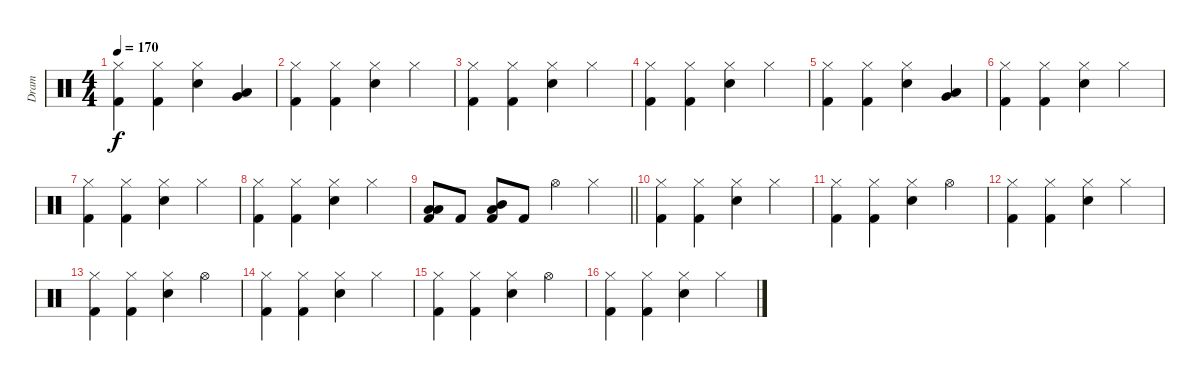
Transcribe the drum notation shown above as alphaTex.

\track ("Dram" "Dram") {instrument percussion}
\staff {score}
\articulation defaults
\ts (4 4)
\tempo 170
\clef neutral
\ks c
("Hi-Hat (closed)" "Kick (hit) 2").4{dy f} ("Hi-Hat (closed)" "Kick (hit) 2").4 ("Hi-Hat (closed)" "Electric Snare (hit)").4 ("Low Tom (hit)" "Very Low Tom (hit)").4 |
("Hi-Hat (closed)" "Kick (hit) 2").4 ("Hi-Hat (closed)" "Kick (hit) 2").4 ("Hi-Hat (closed)" "Electric Snare (hit)").4 "Hi-Hat (closed)".4 |
("Hi-Hat (closed)" "Kick (hit) 2").4 ("Hi-Hat (closed)" "Kick (hit) 2").4 ("Hi-Hat (closed)" "Electric Snare (hit)").4 "Hi-Hat (closed)".4 |
("Hi-Hat (closed)" "Kick (hit) 2").4 ("Hi-Hat (closed)" "Kick (hit) 2").4 ("Hi-Hat (closed)" "Electric Snare (hit)").4 "Hi-Hat (closed)".4 |
("Hi-Hat (closed)" "Kick (hit) 2").4 ("Hi-Hat (closed)" "Kick (hit) 2").4 ("Hi-Hat (closed)" "Electric Snare (hit)").4 ("Low Tom (hit)" "Very Low Tom (hit)").4 |
("Hi-Hat (closed)" "Kick (hit) 2").4 ("Hi-Hat (closed)" "Kick (hit) 2").4 ("Hi-Hat (closed)" "Electric Snare (hit)").4 "Hi-Hat (closed)".4 |
("Hi-Hat (closed)" "Kick (hit) 2").4 ("Hi-Hat (closed)" "Kick (hit) 2").4 ("Hi-Hat (closed)" "Electric Snare (hit)").4 "Hi-Hat (closed)".4 |
("Hi-Hat (closed)" "Kick (hit) 2").4 ("Hi-Hat (closed)" "Kick (hit) 2").4 ("Hi-Hat (closed)" "Electric Snare (hit)").4 "Hi-Hat (closed)".4 |
\barLineRight lightlight
("Low Floor Tom (hit)" "Low Tom (hit)" "Kick (hit) 2").8 "Kick (hit) 2".8 ("Low Tom (hit)" "Mid Tom (hit)" "Kick (hit) 2").8 "Kick (hit) 2".8 "Hi-Hat (open)".4 "Hi-Hat (closed)".4 |
("Hi-Hat (closed)" "Kick (hit) 2").4 ("Hi-Hat (closed)" "Kick (hit) 2").4 ("Hi-Hat (closed)" "Electric Snare (hit)").4 "Hi-Hat (closed)".4 |
("Hi-Hat (closed)" "Kick (hit) 2").4 ("Hi-Hat (closed)" "Kick (hit) 2").4 ("Hi-Hat (closed)" "Electric Snare (hit)").4 "Hi-Hat (open)".4 |
("Hi-Hat (closed)" "Kick (hit) 2").4 ("Hi-Hat (closed)" "Kick (hit) 2").4 ("Hi-Hat (closed)" "Electric Snare (hit)").4 "Hi-Hat (closed)".4 |
("Hi-Hat (closed)" "Kick (hit) 2").4 ("Hi-Hat (closed)" "Kick (hit) 2").4 ("Hi-Hat (closed)" "Electric Snare (hit)").4 "Hi-Hat (open)".4 |
("Hi-Hat (closed)" "Kick (hit) 2").4 ("Hi-Hat (closed)" "Kick (hit) 2").4 ("Hi-Hat (closed)" "Electric Snare (hit)").4 "Hi-Hat (closed)".4 |
("Hi-Hat (closed)" "Kick (hit) 2").4 ("Hi-Hat (closed)" "Kick (hit) 2").4 ("Hi-Hat (closed)" "Electric Snare (hit)").4 "Hi-Hat (open)".4 |
("Hi-Hat (closed)" "Kick (hit) 2").4 ("Hi-Hat (closed)" "Kick (hit) 2").4 ("Hi-Hat (closed)" "Electric Snare (hit)").4 "Hi-Hat (closed)".4
